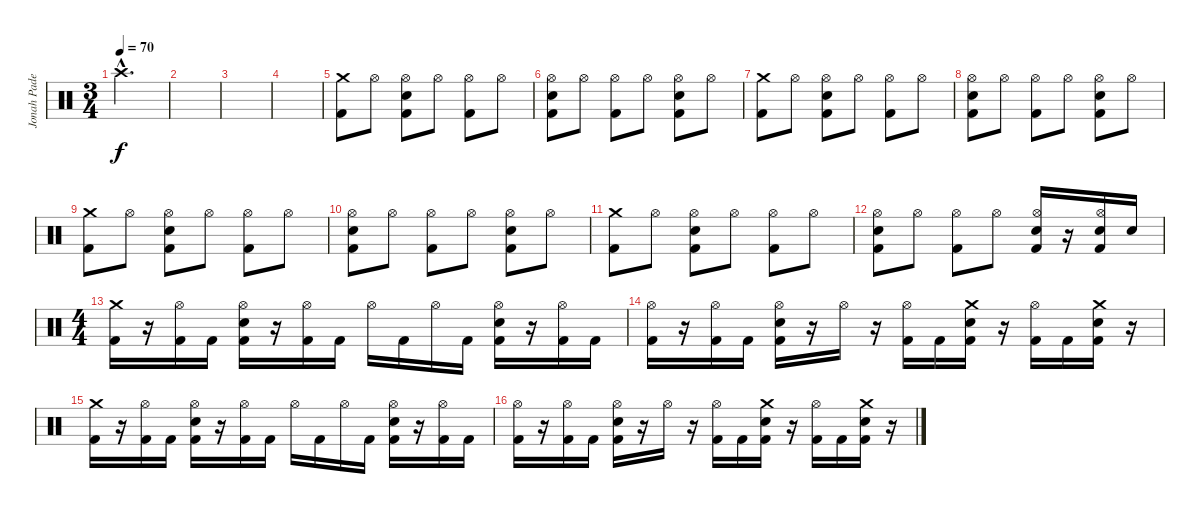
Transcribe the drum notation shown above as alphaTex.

\track ("Jonah Padella" "Jonah Pade") {instrument percussion}
\staff {score}
\articulation defaults
\ts (3 4)
\tempo 70
\clef neutral
\ks c "Crash high (hit)"{hac}.2{d dy f}
|
|
|
|
("Crash medium (hit)" "Kick (hit) 2").8 "Hi-Hat (open)".8 ("Hi-Hat (open)" "Snare (hit) 2" "Kick (hit) 2").8 "Hi-Hat (open)".8 ("Hi-Hat (open)" "Kick (hit) 2").8 "Hi-Hat (open)".8 |
("Hi-Hat (open)" "Snare (hit) 2" "Kick (hit) 2").8 "Hi-Hat (open)".8 ("Hi-Hat (open)" "Kick (hit) 2").8 "Hi-Hat (open)".8 ("Hi-Hat (open)" "Snare (hit) 2" "Kick (hit) 2").8 "Hi-Hat (open)".8 |
("Crash medium (hit)" "Kick (hit) 2").8 "Hi-Hat (open)".8 ("Hi-Hat (open)" "Snare (hit) 2" "Kick (hit) 2").8 "Hi-Hat (open)".8 ("Hi-Hat (open)" "Kick (hit) 2").8 "Hi-Hat (open)".8 |
("Hi-Hat (open)" "Snare (hit) 2" "Kick (hit) 2").8 "Hi-Hat (open)".8 ("Hi-Hat (open)" "Kick (hit) 2").8 "Hi-Hat (open)".8 ("Hi-Hat (open)" "Snare (hit) 2" "Kick (hit) 2").8 "Hi-Hat (open)".8 |
("Crash medium (hit)" "Kick (hit) 2").8 "Hi-Hat (open)".8 ("Hi-Hat (open)" "Snare (hit) 2" "Kick (hit) 2").8 "Hi-Hat (open)".8 ("Hi-Hat (open)" "Kick (hit) 2").8 "Hi-Hat (open)".8 |
("Hi-Hat (open)" "Snare (hit) 2" "Kick (hit) 2").8 "Hi-Hat (open)".8 ("Hi-Hat (open)" "Kick (hit) 2").8 "Hi-Hat (open)".8 ("Hi-Hat (open)" "Snare (hit) 2" "Kick (hit) 2").8 "Hi-Hat (open)".8 |
("Crash medium (hit)" "Kick (hit) 2").8 "Hi-Hat (open)".8 ("Hi-Hat (open)" "Snare (hit) 2" "Kick (hit) 2").8 "Hi-Hat (open)".8 ("Hi-Hat (open)" "Kick (hit) 2").8 "Hi-Hat (open)".8 |
("Hi-Hat (open)" "Snare (hit) 2" "Kick (hit) 2").8 "Hi-Hat (open)".8 ("Hi-Hat (open)" "Kick (hit) 2").8 "Hi-Hat (open)".8 ("Hi-Hat (open)" "Snare (hit) 2" "Kick (hit) 2").16 r.16 ("Hi-Hat (open)" "Snare (hit) 2" "Kick (hit) 2").16 "Snare (hit) 2".16 |
\ts (4 4)
("Crash medium (hit)" "Kick (hit) 2").16 r.16 ("Hi-Hat (open)" "Kick (hit) 2").16 "Kick (hit) 2".16 ("Hi-Hat (open)" "Snare (hit) 2" "Kick (hit) 2").16 r.16 ("Hi-Hat (open)" "Kick (hit) 2").16 "Kick (hit) 2".16 "Hi-Hat (open)".16 "Kick (hit) 2".16 "Hi-Hat (open)".16 "Kick (hit) 2".16 ("Hi-Hat (open)" "Snare (hit) 2" "Kick (hit) 2").16 r.16 ("Hi-Hat (open)" "Kick (hit) 2").16 "Kick (hit) 2".16 |
("Hi-Hat (open)" "Kick (hit) 2").16 r.16 ("Hi-Hat (open)" "Kick (hit) 2").16 "Kick (hit) 2".16 ("Hi-Hat (open)" "Snare (hit) 2" "Kick (hit) 2").16 r.16 "Hi-Hat (open)".16 r.16 ("Hi-Hat (open)" "Kick (hit) 2").16 "Kick (hit) 2".16 ("Crash medium (hit)" "Snare (hit) 2" "Kick (hit) 2").16 r.16 ("Hi-Hat (open)" "Kick (hit) 2").16 "Kick (hit) 2".16 ("Crash medium (hit)" "Snare (hit) 2" "Kick (hit) 2").16 r.16 |
("Crash medium (hit)" "Kick (hit) 2").16 r.16 ("Hi-Hat (open)" "Kick (hit) 2").16 "Kick (hit) 2".16 ("Hi-Hat (open)" "Snare (hit) 2" "Kick (hit) 2").16 r.16 ("Hi-Hat (open)" "Kick (hit) 2").16 "Kick (hit) 2".16 "Hi-Hat (open)".16 "Kick (hit) 2".16 "Hi-Hat (open)".16 "Kick (hit) 2".16 ("Hi-Hat (open)" "Snare (hit) 2" "Kick (hit) 2").16 r.16 ("Hi-Hat (open)" "Kick (hit) 2").16 "Kick (hit) 2".16 |
("Hi-Hat (open)" "Kick (hit) 2").16 r.16 ("Hi-Hat (open)" "Kick (hit) 2").16 "Kick (hit) 2".16 ("Hi-Hat (open)" "Snare (hit) 2" "Kick (hit) 2").16 r.16 "Hi-Hat (open)".16 r.16 ("Hi-Hat (open)" "Kick (hit) 2").16 "Kick (hit) 2".16 ("Crash medium (hit)" "Snare (hit) 2" "Kick (hit) 2").16 r.16 ("Hi-Hat (open)" "Kick (hit) 2").16 "Kick (hit) 2".16 ("Crash medium (hit)" "Snare (hit) 2" "Kick (hit) 2").16 r.16
